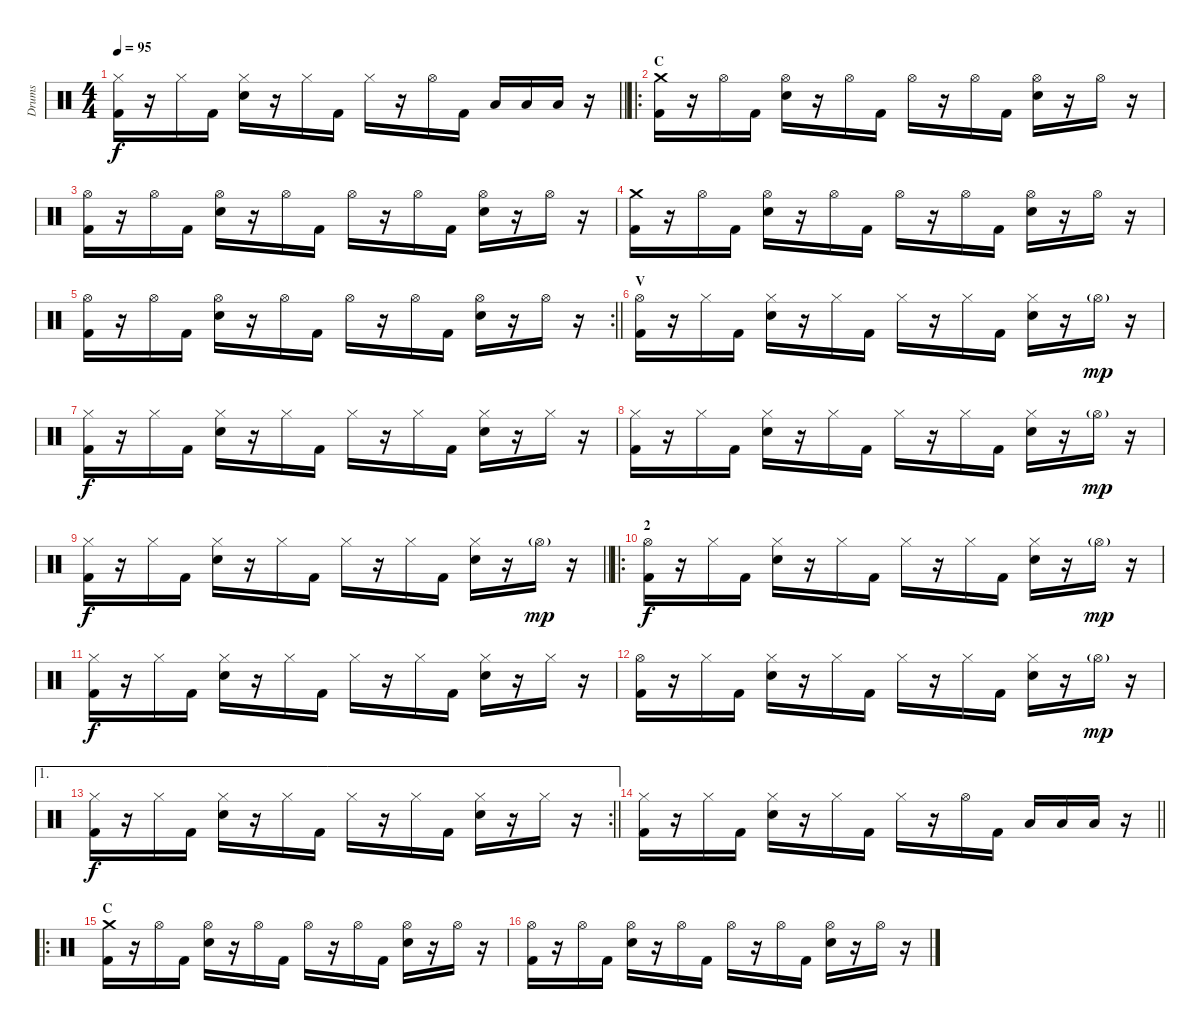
\track ("Drums" "Drums") {instrument percussion}
\staff {score}
\articulation defaults
\ts (4 4)
\tempo 95
\clef neutral
\barLineRight lightlight
\ks c
("Hi-Hat (closed)" "Kick (hit) 2").16{dy f} r.16 "Hi-Hat (closed)".16 "Kick (hit) 2".16 ("Hi-Hat (closed)" "Snare (hit) 2").16 r.16 "Hi-Hat (closed)".16 "Kick (hit) 2".16 "Hi-Hat (closed)".16 r.16 "Hi-Hat (open)".16 "Kick (hit) 2".16 "Low Tom (hit)".16 "Low Tom (hit)".16 "Low Tom (hit)".16 r.16 |
\ro
\section ("" "C")
("Crash medium (hit)" "Kick (hit) 2").16 r.16 "Hi-Hat (open)".16 "Kick (hit) 2".16 ("Hi-Hat (open)" "Snare (hit) 2").16 r.16 "Hi-Hat (open)".16 "Kick (hit) 2".16 "Hi-Hat (open)".16 r.16 "Hi-Hat (open)".16 "Kick (hit) 2".16 ("Hi-Hat (open)" "Snare (hit) 2").16 r.16 "Hi-Hat (open)".16 r.16 |
("Hi-Hat (open)" "Kick (hit) 2").16 r.16 "Hi-Hat (open)".16 "Kick (hit) 2".16 ("Hi-Hat (open)" "Snare (hit) 2").16 r.16 "Hi-Hat (open)".16 "Kick (hit) 2".16 "Hi-Hat (open)".16 r.16 "Hi-Hat (open)".16 "Kick (hit) 2".16 ("Hi-Hat (open)" "Snare (hit) 2").16 r.16 "Hi-Hat (open)".16 r.16 |
("Crash medium (hit)" "Kick (hit) 2").16 r.16 "Hi-Hat (open)".16 "Kick (hit) 2".16 ("Hi-Hat (open)" "Snare (hit) 2").16 r.16 "Hi-Hat (open)".16 "Kick (hit) 2".16 "Hi-Hat (open)".16 r.16 "Hi-Hat (open)".16 "Kick (hit) 2".16 ("Hi-Hat (open)" "Snare (hit) 2").16 r.16 "Hi-Hat (open)".16 r.16 |
\rc 2
\barLineRight lightlight
("Hi-Hat (open)" "Kick (hit) 2").16 r.16 "Hi-Hat (open)".16 "Kick (hit) 2".16 ("Hi-Hat (open)" "Snare (hit) 2").16 r.16 "Hi-Hat (open)".16 "Kick (hit) 2".16 "Hi-Hat (open)".16 r.16 "Hi-Hat (open)".16 "Kick (hit) 2".16 ("Hi-Hat (open)" "Snare (hit) 2").16 r.16 "Hi-Hat (open)".16 r.16 |
\section ("" "V")
("Hi-Hat (open)" "Kick (hit) 2").16 r.16 "Hi-Hat (closed)".16 "Kick (hit) 2".16 ("Hi-Hat (closed)" "Snare (hit) 2").16 r.16 "Hi-Hat (closed)".16 "Kick (hit) 2".16 "Hi-Hat (closed)".16 r.16 "Hi-Hat (closed)".16 "Kick (hit) 2".16 ("Hi-Hat (closed)" "Snare (hit) 2").16 r.16 "Hi-Hat (open)"{g}.16{dy mp} r.16 |
("Hi-Hat (closed)" "Kick (hit) 2").16{dy f} r.16 "Hi-Hat (closed)".16 "Kick (hit) 2".16 ("Hi-Hat (closed)" "Snare (hit) 2").16 r.16 "Hi-Hat (closed)".16 "Kick (hit) 2".16 "Hi-Hat (closed)".16 r.16 "Hi-Hat (closed)".16 "Kick (hit) 2".16 ("Hi-Hat (closed)" "Snare (hit) 2").16 r.16 "Hi-Hat (closed)".16 r.16 |
("Hi-Hat (closed)" "Kick (hit) 2").16 r.16 "Hi-Hat (closed)".16 "Kick (hit) 2".16 ("Hi-Hat (closed)" "Snare (hit) 2").16 r.16 "Hi-Hat (closed)".16 "Kick (hit) 2".16 "Hi-Hat (closed)".16 r.16 "Hi-Hat (closed)".16 "Kick (hit) 2".16 ("Hi-Hat (closed)" "Snare (hit) 2").16 r.16 "Hi-Hat (open)"{g}.16{dy mp} r.16 |
\barLineRight lightlight
("Hi-Hat (closed)" "Kick (hit) 2").16{dy f} r.16 "Hi-Hat (closed)".16 "Kick (hit) 2".16 ("Hi-Hat (closed)" "Snare (hit) 2").16 r.16 "Hi-Hat (closed)".16 "Kick (hit) 2".16 "Hi-Hat (closed)".16 r.16 "Hi-Hat (closed)".16 "Kick (hit) 2".16 ("Hi-Hat (closed)" "Snare (hit) 2").16 r.16 "Hi-Hat (open)"{g}.16{dy mp} r.16 |
\ro
\section ("" "2")
("Hi-Hat (open)" "Kick (hit) 2").16{dy f} r.16 "Hi-Hat (closed)".16 "Kick (hit) 2".16 ("Hi-Hat (closed)" "Snare (hit) 2").16 r.16 "Hi-Hat (closed)".16 "Kick (hit) 2".16 "Hi-Hat (closed)".16 r.16 "Hi-Hat (closed)".16 "Kick (hit) 2".16 ("Hi-Hat (closed)" "Snare (hit) 2").16 r.16 "Hi-Hat (open)"{g}.16{dy mp} r.16 |
("Hi-Hat (closed)" "Kick (hit) 2").16{dy f} r.16 "Hi-Hat (closed)".16 "Kick (hit) 2".16 ("Hi-Hat (closed)" "Snare (hit) 2").16 r.16 "Hi-Hat (closed)".16 "Kick (hit) 2".16 "Hi-Hat (closed)".16 r.16 "Hi-Hat (closed)".16 "Kick (hit) 2".16 ("Hi-Hat (closed)" "Snare (hit) 2").16 r.16 "Hi-Hat (closed)".16 r.16 |
("Hi-Hat (open)" "Kick (hit) 2").16 r.16 "Hi-Hat (closed)".16 "Kick (hit) 2".16 ("Hi-Hat (closed)" "Snare (hit) 2").16 r.16 "Hi-Hat (closed)".16 "Kick (hit) 2".16 "Hi-Hat (closed)".16 r.16 "Hi-Hat (closed)".16 "Kick (hit) 2".16 ("Hi-Hat (closed)" "Snare (hit) 2").16 r.16 "Hi-Hat (open)"{g}.16{dy mp} r.16 |
\ae 1
\rc 2
\barLineRight lightlight
("Hi-Hat (closed)" "Kick (hit) 2").16{dy f} r.16 "Hi-Hat (closed)".16 "Kick (hit) 2".16 ("Hi-Hat (closed)" "Snare (hit) 2").16 r.16 "Hi-Hat (closed)".16 "Kick (hit) 2".16 "Hi-Hat (closed)".16 r.16 "Hi-Hat (closed)".16 "Kick (hit) 2".16 ("Hi-Hat (closed)" "Snare (hit) 2").16 r.16 "Hi-Hat (closed)".16 r.16 |
\barLineRight lightlight
("Hi-Hat (closed)" "Kick (hit) 2").16 r.16 "Hi-Hat (closed)".16 "Kick (hit) 2".16 ("Hi-Hat (closed)" "Snare (hit) 2").16 r.16 "Hi-Hat (closed)".16 "Kick (hit) 2".16 "Hi-Hat (closed)".16 r.16 "Hi-Hat (open)".16 "Kick (hit) 2".16 "Low Tom (hit)".16 "Low Tom (hit)".16 "Low Tom (hit)".16 r.16 |
\ro
\section ("" "C")
("Crash medium (hit)" "Kick (hit) 2").16 r.16 "Hi-Hat (open)".16 "Kick (hit) 2".16 ("Hi-Hat (open)" "Snare (hit) 2").16 r.16 "Hi-Hat (open)".16 "Kick (hit) 2".16 "Hi-Hat (open)".16 r.16 "Hi-Hat (open)".16 "Kick (hit) 2".16 ("Hi-Hat (open)" "Snare (hit) 2").16 r.16 "Hi-Hat (open)".16 r.16 |
("Hi-Hat (open)" "Kick (hit) 2").16 r.16 "Hi-Hat (open)".16 "Kick (hit) 2".16 ("Hi-Hat (open)" "Snare (hit) 2").16 r.16 "Hi-Hat (open)".16 "Kick (hit) 2".16 "Hi-Hat (open)".16 r.16 "Hi-Hat (open)".16 "Kick (hit) 2".16 ("Hi-Hat (open)" "Snare (hit) 2").16 r.16 "Hi-Hat (open)".16 r.16
